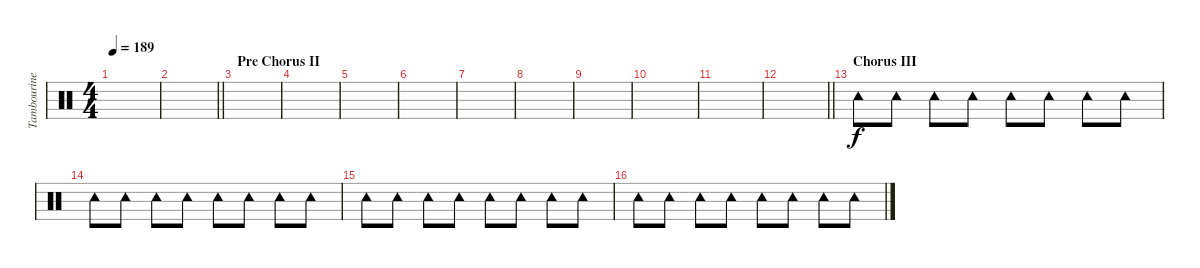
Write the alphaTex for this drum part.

\track ("Tambourine" "Tambourine") {instrument percussion}
\staff {score}
\articulation defaults
\ts (4 4)
\tempo 189
\clef neutral
\ks c
|
\barLineRight lightlight
|
\section ("" "Pre Chorus II")
|
|
|
|
|
|
|
|
|
\barLineRight lightlight
|
\section ("" "Chorus III")
"Tambourine (hit)".8 "Tambourine (hit)".8 "Tambourine (hit)".8 "Tambourine (hit)".8 "Tambourine (hit)".8 "Tambourine (hit)".8 "Tambourine (hit)".8 "Tambourine (hit)".8 |
"Tambourine (hit)".8 "Tambourine (hit)".8 "Tambourine (hit)".8 "Tambourine (hit)".8 "Tambourine (hit)".8 "Tambourine (hit)".8 "Tambourine (hit)".8 "Tambourine (hit)".8 |
"Tambourine (hit)".8 "Tambourine (hit)".8 "Tambourine (hit)".8 "Tambourine (hit)".8 "Tambourine (hit)".8 "Tambourine (hit)".8 "Tambourine (hit)".8 "Tambourine (hit)".8 |
"Tambourine (hit)".8 "Tambourine (hit)".8 "Tambourine (hit)".8 "Tambourine (hit)".8 "Tambourine (hit)".8 "Tambourine (hit)".8 "Tambourine (hit)".8 "Tambourine (hit)".8
